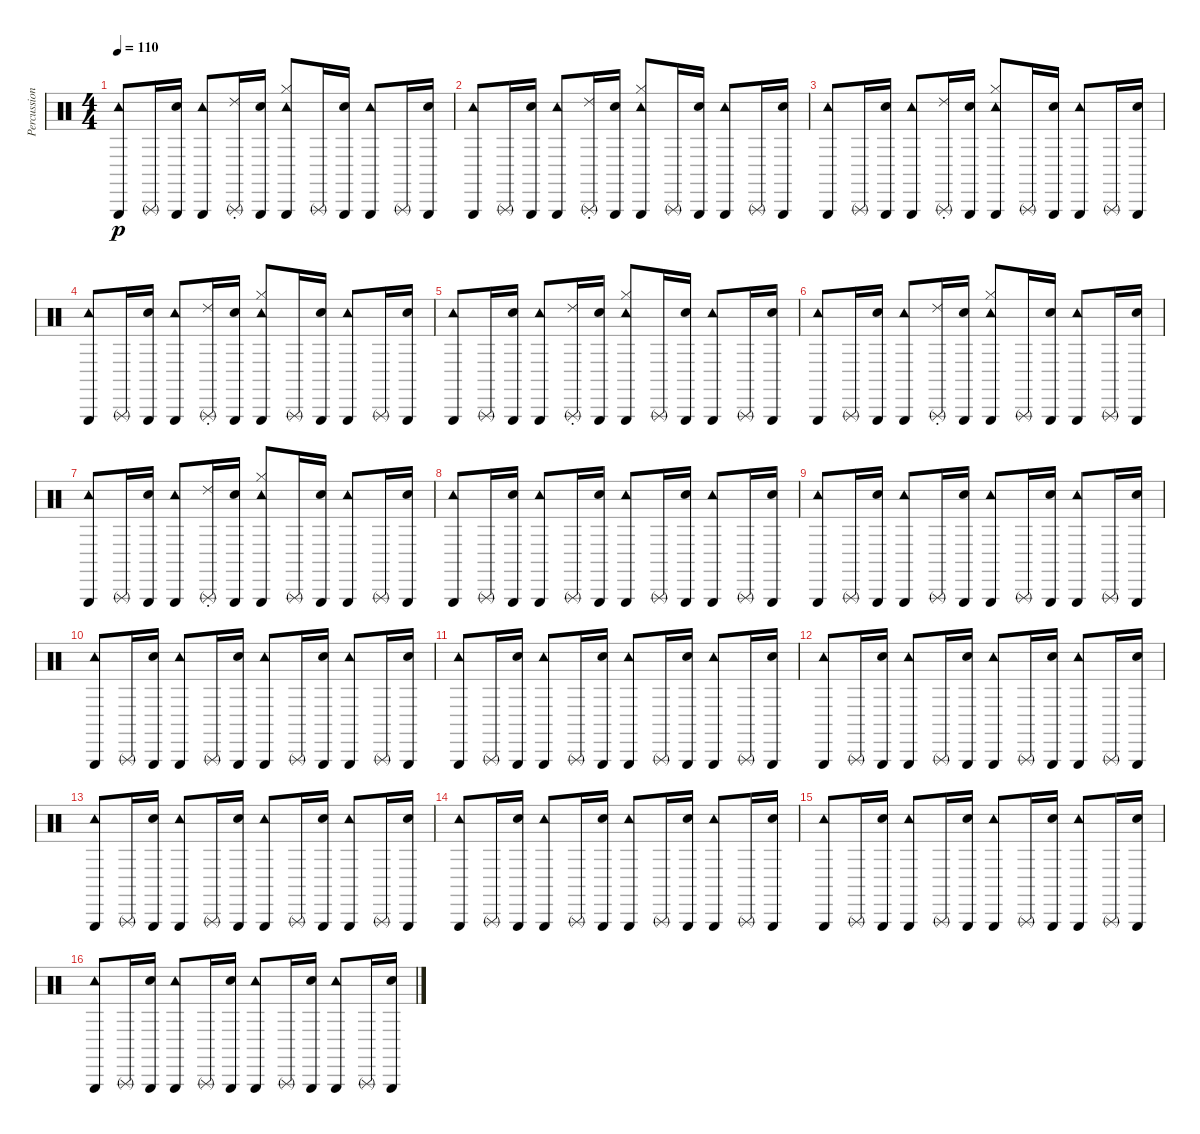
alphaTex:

\track ("Percussion" "Percussion") {instrument percussion}
\staff {score}
\articulation defaults
\ts (4 4)
\tempo 110
\clef neutral
\ks c
("Tambourine (hit)" "Triangle (hit)").8{dy p} "Triangle (rnute)".16 ("Metronome (bell)" "Triangle (hit)").16 ("Tambourine (hit)" "Triangle (hit)").8 ("Triangle (rnute)" "Ride (choke) 2").16 ("Metronome (bell)" "Triangle (hit)").16 ("Tambourine (hit)" "Triangle (hit)" "Hi-Hat (closed)").8 "Triangle (rnute)".16 ("Metronome (bell)" "Triangle (hit)").16 ("Tambourine (hit)" "Triangle (hit)").8 "Triangle (rnute)".16 ("Metronome (bell)" "Triangle (hit)").16 |
("Tambourine (hit)" "Triangle (hit)").8 "Triangle (rnute)".16 ("Metronome (bell)" "Triangle (hit)").16 ("Tambourine (hit)" "Triangle (hit)").8 ("Triangle (rnute)" "Ride (choke) 2").16 ("Metronome (bell)" "Triangle (hit)").16 ("Tambourine (hit)" "Triangle (hit)" "Hi-Hat (closed)").8 "Triangle (rnute)".16 ("Metronome (bell)" "Triangle (hit)").16 ("Tambourine (hit)" "Triangle (hit)").8 "Triangle (rnute)".16 ("Metronome (bell)" "Triangle (hit)").16 |
("Tambourine (hit)" "Triangle (hit)").8 "Triangle (rnute)".16 ("Metronome (bell)" "Triangle (hit)").16 ("Tambourine (hit)" "Triangle (hit)").8 ("Triangle (rnute)" "Ride (choke) 2").16 ("Metronome (bell)" "Triangle (hit)").16 ("Tambourine (hit)" "Triangle (hit)" "Hi-Hat (closed)").8 "Triangle (rnute)".16 ("Metronome (bell)" "Triangle (hit)").16 ("Tambourine (hit)" "Triangle (hit)").8 "Triangle (rnute)".16 ("Metronome (bell)" "Triangle (hit)").16 |
("Tambourine (hit)" "Triangle (hit)").8 "Triangle (rnute)".16 ("Metronome (bell)" "Triangle (hit)").16 ("Tambourine (hit)" "Triangle (hit)").8 ("Triangle (rnute)" "Ride (choke) 2").16 ("Metronome (bell)" "Triangle (hit)").16 ("Tambourine (hit)" "Triangle (hit)" "Hi-Hat (closed)").8 "Triangle (rnute)".16 ("Metronome (bell)" "Triangle (hit)").16 ("Tambourine (hit)" "Triangle (hit)").8 "Triangle (rnute)".16 ("Metronome (bell)" "Triangle (hit)").16 |
("Tambourine (hit)" "Triangle (hit)").8 "Triangle (rnute)".16 ("Metronome (bell)" "Triangle (hit)").16 ("Tambourine (hit)" "Triangle (hit)").8 ("Triangle (rnute)" "Ride (choke) 2").16 ("Metronome (bell)" "Triangle (hit)").16 ("Tambourine (hit)" "Triangle (hit)" "Hi-Hat (closed)").8 "Triangle (rnute)".16 ("Metronome (bell)" "Triangle (hit)").16 ("Tambourine (hit)" "Triangle (hit)").8 "Triangle (rnute)".16 ("Metronome (bell)" "Triangle (hit)").16 |
("Tambourine (hit)" "Triangle (hit)").8 "Triangle (rnute)".16 ("Metronome (bell)" "Triangle (hit)").16 ("Tambourine (hit)" "Triangle (hit)").8 ("Triangle (rnute)" "Ride (choke) 2").16 ("Metronome (bell)" "Triangle (hit)").16 ("Tambourine (hit)" "Triangle (hit)" "Hi-Hat (closed)").8 "Triangle (rnute)".16 ("Metronome (bell)" "Triangle (hit)").16 ("Tambourine (hit)" "Triangle (hit)").8 "Triangle (rnute)".16 ("Metronome (bell)" "Triangle (hit)").16 |
("Tambourine (hit)" "Triangle (hit)").8 "Triangle (rnute)".16 ("Metronome (bell)" "Triangle (hit)").16 ("Tambourine (hit)" "Triangle (hit)").8 ("Triangle (rnute)" "Ride (choke) 2").16 ("Metronome (bell)" "Triangle (hit)").16 ("Tambourine (hit)" "Triangle (hit)" "Hi-Hat (closed)").8 "Triangle (rnute)".16 ("Metronome (bell)" "Triangle (hit)").16 ("Tambourine (hit)" "Triangle (hit)").8 "Triangle (rnute)".16 ("Metronome (bell)" "Triangle (hit)").16 |
("Tambourine (hit)" "Triangle (hit)").8 "Triangle (rnute)".16 ("Metronome (bell)" "Triangle (hit)").16 ("Tambourine (hit)" "Triangle (hit)").8 "Triangle (rnute)".16 ("Metronome (bell)" "Triangle (hit)").16 ("Tambourine (hit)" "Triangle (hit)").8 "Triangle (rnute)".16 ("Metronome (bell)" "Triangle (hit)").16 ("Tambourine (hit)" "Triangle (hit)").8 "Triangle (rnute)".16 ("Metronome (bell)" "Triangle (hit)").16 |
("Tambourine (hit)" "Triangle (hit)").8 "Triangle (rnute)".16 ("Metronome (bell)" "Triangle (hit)").16 ("Tambourine (hit)" "Triangle (hit)").8 "Triangle (rnute)".16 ("Metronome (bell)" "Triangle (hit)").16 ("Tambourine (hit)" "Triangle (hit)").8 "Triangle (rnute)".16 ("Metronome (bell)" "Triangle (hit)").16 ("Tambourine (hit)" "Triangle (hit)").8 "Triangle (rnute)".16 ("Metronome (bell)" "Triangle (hit)").16 |
("Tambourine (hit)" "Triangle (hit)").8 "Triangle (rnute)".16 ("Metronome (bell)" "Triangle (hit)").16 ("Tambourine (hit)" "Triangle (hit)").8 "Triangle (rnute)".16 ("Metronome (bell)" "Triangle (hit)").16 ("Tambourine (hit)" "Triangle (hit)").8 "Triangle (rnute)".16 ("Metronome (bell)" "Triangle (hit)").16 ("Tambourine (hit)" "Triangle (hit)").8 "Triangle (rnute)".16 ("Metronome (bell)" "Triangle (hit)").16 |
("Tambourine (hit)" "Triangle (hit)").8 "Triangle (rnute)".16 ("Metronome (bell)" "Triangle (hit)").16 ("Tambourine (hit)" "Triangle (hit)").8 "Triangle (rnute)".16 ("Metronome (bell)" "Triangle (hit)").16 ("Tambourine (hit)" "Triangle (hit)").8 "Triangle (rnute)".16 ("Metronome (bell)" "Triangle (hit)").16 ("Tambourine (hit)" "Triangle (hit)").8 "Triangle (rnute)".16 ("Metronome (bell)" "Triangle (hit)").16 |
("Tambourine (hit)" "Triangle (hit)").8 "Triangle (rnute)".16 ("Metronome (bell)" "Triangle (hit)").16 ("Tambourine (hit)" "Triangle (hit)").8 "Triangle (rnute)".16 ("Metronome (bell)" "Triangle (hit)").16 ("Tambourine (hit)" "Triangle (hit)").8 "Triangle (rnute)".16 ("Metronome (bell)" "Triangle (hit)").16 ("Tambourine (hit)" "Triangle (hit)").8 "Triangle (rnute)".16 ("Metronome (bell)" "Triangle (hit)").16 |
("Tambourine (hit)" "Triangle (hit)").8 "Triangle (rnute)".16 ("Metronome (bell)" "Triangle (hit)").16 ("Tambourine (hit)" "Triangle (hit)").8 "Triangle (rnute)".16 ("Metronome (bell)" "Triangle (hit)").16 ("Tambourine (hit)" "Triangle (hit)").8 "Triangle (rnute)".16 ("Metronome (bell)" "Triangle (hit)").16 ("Tambourine (hit)" "Triangle (hit)").8 "Triangle (rnute)".16 ("Metronome (bell)" "Triangle (hit)").16 |
("Tambourine (hit)" "Triangle (hit)").8 "Triangle (rnute)".16 ("Metronome (bell)" "Triangle (hit)").16 ("Tambourine (hit)" "Triangle (hit)").8 "Triangle (rnute)".16 ("Metronome (bell)" "Triangle (hit)").16 ("Tambourine (hit)" "Triangle (hit)").8 "Triangle (rnute)".16 ("Metronome (bell)" "Triangle (hit)").16 ("Tambourine (hit)" "Triangle (hit)").8 "Triangle (rnute)".16 ("Metronome (bell)" "Triangle (hit)").16 |
("Tambourine (hit)" "Triangle (hit)").8 "Triangle (rnute)".16 ("Metronome (bell)" "Triangle (hit)").16 ("Tambourine (hit)" "Triangle (hit)").8 "Triangle (rnute)".16 ("Metronome (bell)" "Triangle (hit)").16 ("Tambourine (hit)" "Triangle (hit)").8 "Triangle (rnute)".16 ("Metronome (bell)" "Triangle (hit)").16 ("Tambourine (hit)" "Triangle (hit)").8 "Triangle (rnute)".16 ("Metronome (bell)" "Triangle (hit)").16 |
("Tambourine (hit)" "Triangle (hit)").8 "Triangle (rnute)".16 ("Metronome (bell)" "Triangle (hit)").16 ("Tambourine (hit)" "Triangle (hit)").8 "Triangle (rnute)".16 ("Metronome (bell)" "Triangle (hit)").16 ("Tambourine (hit)" "Triangle (hit)").8 "Triangle (rnute)".16 ("Metronome (bell)" "Triangle (hit)").16 ("Tambourine (hit)" "Triangle (hit)").8 "Triangle (rnute)".16 ("Metronome (bell)" "Triangle (hit)").16
